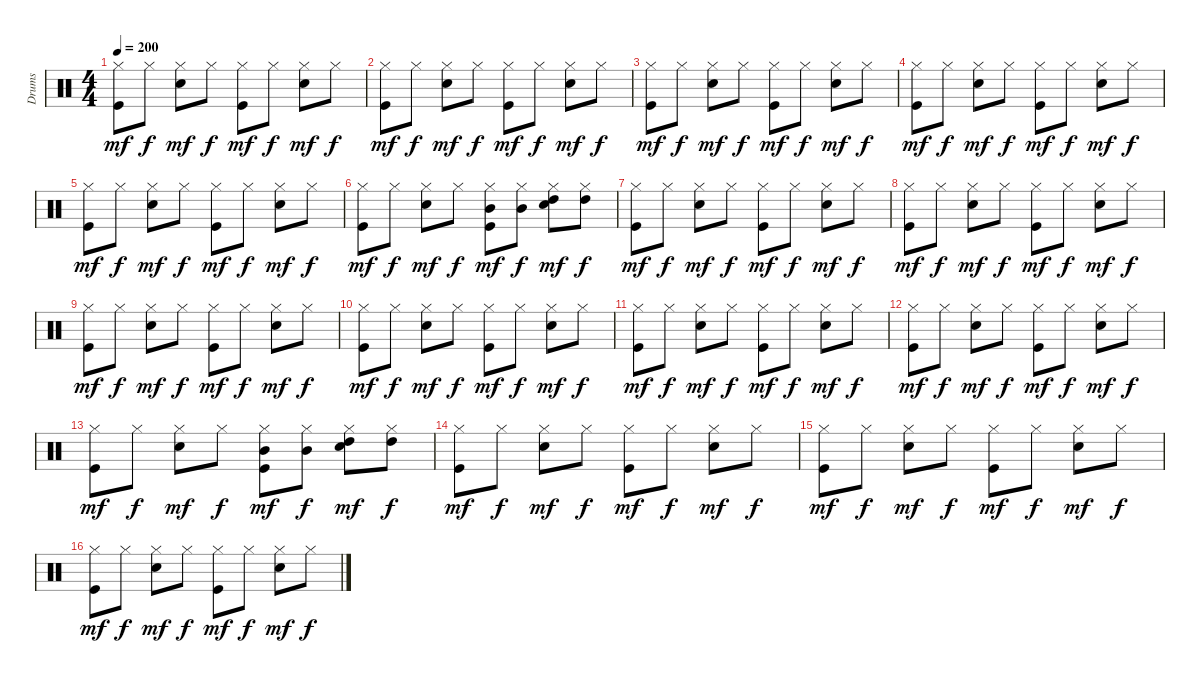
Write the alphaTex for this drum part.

\track ("Drums" "Drums") {instrument percussion}
\staff {score}
\articulation defaults
\ts (4 4)
\tempo 200
\clef neutral
\ks c
("Hi-Hat (closed)" "Kick (hit)").8{dy mf} "Hi-Hat (closed)".8{dy f} ("Hi-Hat (closed)" "Electric Snare (hit)").8{dy mf} "Hi-Hat (closed)".8{dy f} ("Hi-Hat (closed)" "Kick (hit)").8{dy mf} "Hi-Hat (closed)".8{dy f} ("Hi-Hat (closed)" "Electric Snare (hit)").8{dy mf} "Hi-Hat (closed)".8{dy f} |
("Hi-Hat (closed)" "Kick (hit)").8{dy mf} "Hi-Hat (closed)".8{dy f} ("Hi-Hat (closed)" "Electric Snare (hit)").8{dy mf} "Hi-Hat (closed)".8{dy f} ("Hi-Hat (closed)" "Kick (hit)").8{dy mf} "Hi-Hat (closed)".8{dy f} ("Hi-Hat (closed)" "Electric Snare (hit)").8{dy mf} "Hi-Hat (closed)".8{dy f} |
("Hi-Hat (closed)" "Kick (hit)").8{dy mf} "Hi-Hat (closed)".8{dy f} ("Hi-Hat (closed)" "Electric Snare (hit)").8{dy mf} "Hi-Hat (closed)".8{dy f} ("Hi-Hat (closed)" "Kick (hit)").8{dy mf} "Hi-Hat (closed)".8{dy f} ("Hi-Hat (closed)" "Electric Snare (hit)").8{dy mf} "Hi-Hat (closed)".8{dy f} |
("Hi-Hat (closed)" "Kick (hit)").8{dy mf} "Hi-Hat (closed)".8{dy f} ("Hi-Hat (closed)" "Electric Snare (hit)").8{dy mf} "Hi-Hat (closed)".8{dy f} ("Hi-Hat (closed)" "Kick (hit)").8{dy mf} "Hi-Hat (closed)".8{dy f} ("Hi-Hat (closed)" "Electric Snare (hit)").8{dy mf} "Hi-Hat (closed)".8{dy f} |
("Hi-Hat (closed)" "Kick (hit)").8{dy mf} "Hi-Hat (closed)".8{dy f} ("Hi-Hat (closed)" "Electric Snare (hit)").8{dy mf} "Hi-Hat (closed)".8{dy f} ("Hi-Hat (closed)" "Kick (hit)").8{dy mf} "Hi-Hat (closed)".8{dy f} ("Hi-Hat (closed)" "Electric Snare (hit)").8{dy mf} "Hi-Hat (closed)".8{dy f} |
("Hi-Hat (closed)" "Kick (hit)").8{dy mf} "Hi-Hat (closed)".8{dy f} ("Hi-Hat (closed)" "Electric Snare (hit)").8{dy mf} "Hi-Hat (closed)".8{dy f} ("Mid Tom (hit)" "Hi-Hat (closed)" "Kick (hit)").8{dy mf} ("Mid Tom (hit)" "Hi-Hat (closed)").8{dy f} ("High Tom (hit)" "Hi-Hat (closed)" "Electric Snare (hit)").8{dy mf} ("High Tom (hit)" "Hi-Hat (closed)").8{dy f} |
("Hi-Hat (closed)" "Kick (hit)").8{dy mf} "Hi-Hat (closed)".8{dy f} ("Hi-Hat (closed)" "Electric Snare (hit)").8{dy mf} "Hi-Hat (closed)".8{dy f} ("Hi-Hat (closed)" "Kick (hit)").8{dy mf} "Hi-Hat (closed)".8{dy f} ("Hi-Hat (closed)" "Electric Snare (hit)").8{dy mf} "Hi-Hat (closed)".8{dy f} |
("Hi-Hat (closed)" "Kick (hit)").8{dy mf} "Hi-Hat (closed)".8{dy f} ("Hi-Hat (closed)" "Electric Snare (hit)").8{dy mf} "Hi-Hat (closed)".8{dy f} ("Hi-Hat (closed)" "Kick (hit)").8{dy mf} "Hi-Hat (closed)".8{dy f} ("Hi-Hat (closed)" "Electric Snare (hit)").8{dy mf} "Hi-Hat (closed)".8{dy f} |
("Hi-Hat (closed)" "Kick (hit)").8{dy mf} "Hi-Hat (closed)".8{dy f} ("Hi-Hat (closed)" "Electric Snare (hit)").8{dy mf} "Hi-Hat (closed)".8{dy f} ("Hi-Hat (closed)" "Kick (hit)").8{dy mf} "Hi-Hat (closed)".8{dy f} ("Hi-Hat (closed)" "Electric Snare (hit)").8{dy mf} "Hi-Hat (closed)".8{dy f} |
("Hi-Hat (closed)" "Kick (hit)").8{dy mf} "Hi-Hat (closed)".8{dy f} ("Hi-Hat (closed)" "Electric Snare (hit)").8{dy mf} "Hi-Hat (closed)".8{dy f} ("Hi-Hat (closed)" "Kick (hit)").8{dy mf} "Hi-Hat (closed)".8{dy f} ("Hi-Hat (closed)" "Electric Snare (hit)").8{dy mf} "Hi-Hat (closed)".8{dy f} |
("Hi-Hat (closed)" "Kick (hit)").8{dy mf} "Hi-Hat (closed)".8{dy f} ("Hi-Hat (closed)" "Electric Snare (hit)").8{dy mf} "Hi-Hat (closed)".8{dy f} ("Hi-Hat (closed)" "Kick (hit)").8{dy mf} "Hi-Hat (closed)".8{dy f} ("Hi-Hat (closed)" "Electric Snare (hit)").8{dy mf} "Hi-Hat (closed)".8{dy f} |
("Hi-Hat (closed)" "Kick (hit)").8{dy mf} "Hi-Hat (closed)".8{dy f} ("Hi-Hat (closed)" "Electric Snare (hit)").8{dy mf} "Hi-Hat (closed)".8{dy f} ("Hi-Hat (closed)" "Kick (hit)").8{dy mf} "Hi-Hat (closed)".8{dy f} ("Hi-Hat (closed)" "Electric Snare (hit)").8{dy mf} "Hi-Hat (closed)".8{dy f} |
("Hi-Hat (closed)" "Kick (hit)").8{dy mf} "Hi-Hat (closed)".8{dy f} ("Hi-Hat (closed)" "Electric Snare (hit)").8{dy mf} "Hi-Hat (closed)".8{dy f} ("Mid Tom (hit)" "Hi-Hat (closed)" "Kick (hit)").8{dy mf} ("Mid Tom (hit)" "Hi-Hat (closed)").8{dy f} ("High Tom (hit)" "Hi-Hat (closed)" "Electric Snare (hit)").8{dy mf} ("High Tom (hit)" "Hi-Hat (closed)").8{dy f} |
("Hi-Hat (closed)" "Kick (hit)").8{dy mf} "Hi-Hat (closed)".8{dy f} ("Hi-Hat (closed)" "Electric Snare (hit)").8{dy mf} "Hi-Hat (closed)".8{dy f} ("Hi-Hat (closed)" "Kick (hit)").8{dy mf} "Hi-Hat (closed)".8{dy f} ("Hi-Hat (closed)" "Electric Snare (hit)").8{dy mf} "Hi-Hat (closed)".8{dy f} |
("Hi-Hat (closed)" "Kick (hit)").8{dy mf} "Hi-Hat (closed)".8{dy f} ("Hi-Hat (closed)" "Electric Snare (hit)").8{dy mf} "Hi-Hat (closed)".8{dy f} ("Hi-Hat (closed)" "Kick (hit)").8{dy mf} "Hi-Hat (closed)".8{dy f} ("Hi-Hat (closed)" "Electric Snare (hit)").8{dy mf} "Hi-Hat (closed)".8{dy f} |
("Hi-Hat (closed)" "Kick (hit)").8{dy mf} "Hi-Hat (closed)".8{dy f} ("Hi-Hat (closed)" "Electric Snare (hit)").8{dy mf} "Hi-Hat (closed)".8{dy f} ("Hi-Hat (closed)" "Kick (hit)").8{dy mf} "Hi-Hat (closed)".8{dy f} ("Hi-Hat (closed)" "Electric Snare (hit)").8{dy mf} "Hi-Hat (closed)".8{dy f}
